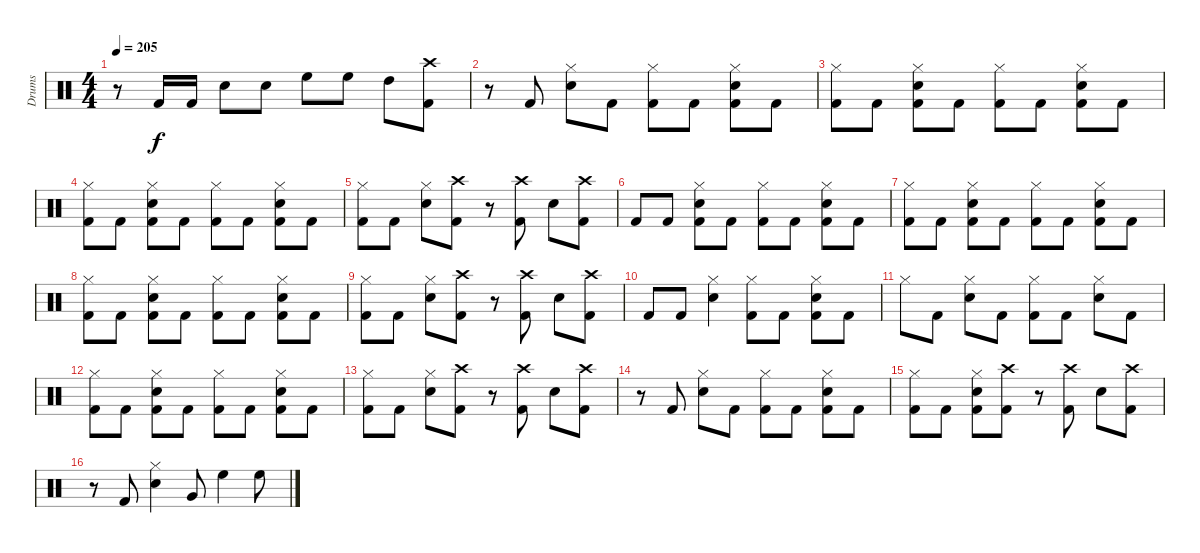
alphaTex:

\track ("Drums" "Drums") {instrument percussion}
\staff {score}
\articulation defaults
\ts (4 4)
\tempo 205
\clef neutral
\ks c
r.8{dy f} "Kick (hit) 2".16 "Kick (hit) 2".16 "Snare (hit) 2".8 "Snare (hit) 2".8 "High Floor Tom (hit)".8 "High Floor Tom (hit)".8 "High Tom (hit)".8 ("Crash high (hit)" "Kick (hit) 2").8 |
r.8 "Kick (hit) 2".8 ("Hi-Hat (closed)" "Snare (hit) 2").8 "Kick (hit) 2".8 ("Kick (hit) 2" "Hi-Hat (closed)").8 "Kick (hit) 2".8 ("Kick (hit) 2" "Hi-Hat (closed)" "Snare (hit) 2").8 "Kick (hit) 2".8 |
("Kick (hit) 2" "Hi-Hat (closed)").8 "Kick (hit) 2".8 ("Kick (hit) 2" "Hi-Hat (closed)" "Snare (hit) 2").8 "Kick (hit) 2".8 ("Kick (hit) 2" "Hi-Hat (closed)").8 "Kick (hit) 2".8 ("Kick (hit) 2" "Hi-Hat (closed)" "Snare (hit) 2").8 "Kick (hit) 2".8 |
("Kick (hit) 2" "Hi-Hat (closed)").8 "Kick (hit) 2".8 ("Kick (hit) 2" "Hi-Hat (closed)" "Snare (hit) 2").8 "Kick (hit) 2".8 ("Kick (hit) 2" "Hi-Hat (closed)").8 "Kick (hit) 2".8 ("Kick (hit) 2" "Hi-Hat (closed)" "Snare (hit) 2").8 "Kick (hit) 2".8 |
("Kick (hit) 2" "Hi-Hat (closed)").8 "Kick (hit) 2".8 ("Snare (hit) 2" "Hi-Hat (closed)").8 ("Kick (hit) 2" "Crash high (hit)").8 r.8 ("Kick (hit) 2" "Crash high (hit)").8 "Snare (hit) 2".8 ("Kick (hit) 2" "Crash high (hit)").8 |
"Kick (hit) 2".8 "Kick (hit) 2".8 ("Kick (hit) 2" "Hi-Hat (closed)" "Snare (hit) 2").8 "Kick (hit) 2".8 ("Kick (hit) 2" "Hi-Hat (closed)").8 "Kick (hit) 2".8 ("Kick (hit) 2" "Hi-Hat (closed)" "Snare (hit) 2").8 "Kick (hit) 2".8 |
("Kick (hit) 2" "Hi-Hat (closed)").8 "Kick (hit) 2".8 ("Kick (hit) 2" "Hi-Hat (closed)" "Snare (hit) 2").8 "Kick (hit) 2".8 ("Kick (hit) 2" "Hi-Hat (closed)").8 "Kick (hit) 2".8 ("Kick (hit) 2" "Hi-Hat (closed)" "Snare (hit) 2").8 "Kick (hit) 2".8 |
("Kick (hit) 2" "Hi-Hat (closed)").8 "Kick (hit) 2".8 ("Kick (hit) 2" "Hi-Hat (closed)" "Snare (hit) 2").8 "Kick (hit) 2".8 ("Kick (hit) 2" "Hi-Hat (closed)").8 "Kick (hit) 2".8 ("Kick (hit) 2" "Hi-Hat (closed)" "Snare (hit) 2").8 "Kick (hit) 2".8 |
("Kick (hit) 2" "Hi-Hat (closed)").8 "Kick (hit) 2".8 ("Snare (hit) 2" "Hi-Hat (closed)").8 ("Kick (hit) 2" "Crash high (hit)").8 r.8 ("Kick (hit) 2" "Crash high (hit)").8 "Snare (hit) 2".8 ("Kick (hit) 2" "Crash high (hit)").8 |
"Kick (hit) 2".8 "Kick (hit) 2".8 ("Snare (hit) 2" "Hi-Hat (closed)").4 ("Hi-Hat (closed)" "Kick (hit) 2").8 "Kick (hit) 2".8 ("Hi-Hat (closed)" "Snare (hit) 2" "Kick (hit) 2").8 "Kick (hit) 2".8 |
"Hi-Hat (closed)".8 "Kick (hit) 2".8 ("Hi-Hat (closed)" "Snare (hit) 2").8 "Kick (hit) 2".8 ("Kick (hit) 2" "Hi-Hat (closed)").8 "Kick (hit) 2".8 ("Hi-Hat (closed)" "Snare (hit) 2").8 "Kick (hit) 2".8 |
("Hi-Hat (closed)" "Kick (hit) 2").8 "Kick (hit) 2".8 ("Kick (hit) 2" "Hi-Hat (closed)" "Snare (hit) 2").8 "Kick (hit) 2".8 ("Kick (hit) 2" "Hi-Hat (closed)").8 "Kick (hit) 2".8 ("Kick (hit) 2" "Hi-Hat (closed)" "Snare (hit) 2").8 "Kick (hit) 2".8 |
("Hi-Hat (closed)" "Kick (hit) 2").8 "Kick (hit) 2".8 ("Snare (hit) 2" "Hi-Hat (closed)").8 ("Kick (hit) 2" "Crash high (hit)").8 r.8 ("Crash high (hit)" "Kick (hit) 2").8 "Snare (hit) 2".8 ("Crash high (hit)" "Kick (hit) 2").8 |
r.8 "Kick (hit) 2".8 ("Snare (hit) 2" "Hi-Hat (closed)").8 "Kick (hit) 2".8 ("Kick (hit) 2" "Hi-Hat (closed)").8 "Kick (hit) 2".8 ("Kick (hit) 2" "Hi-Hat (closed)" "Snare (hit) 2").8 "Kick (hit) 2".8 |
("Kick (hit) 2" "Hi-Hat (closed)").8 "Kick (hit) 2".8 ("Kick (hit) 2" "Hi-Hat (closed)" "Snare (hit) 2").8 ("Kick (hit) 2" "Crash high (hit)").8 r.8 ("Crash high (hit)" "Kick (hit) 2").8 "Snare (hit) 2".8 ("Crash high (hit)" "Kick (hit) 2").8 |
r.8 "Kick (hit) 2".8 ("Snare (hit) 2" "Hi-Hat (closed)").4 "Very Low Tom (hit)".8 "High Floor Tom (hit)".4 "High Floor Tom (hit)".8
